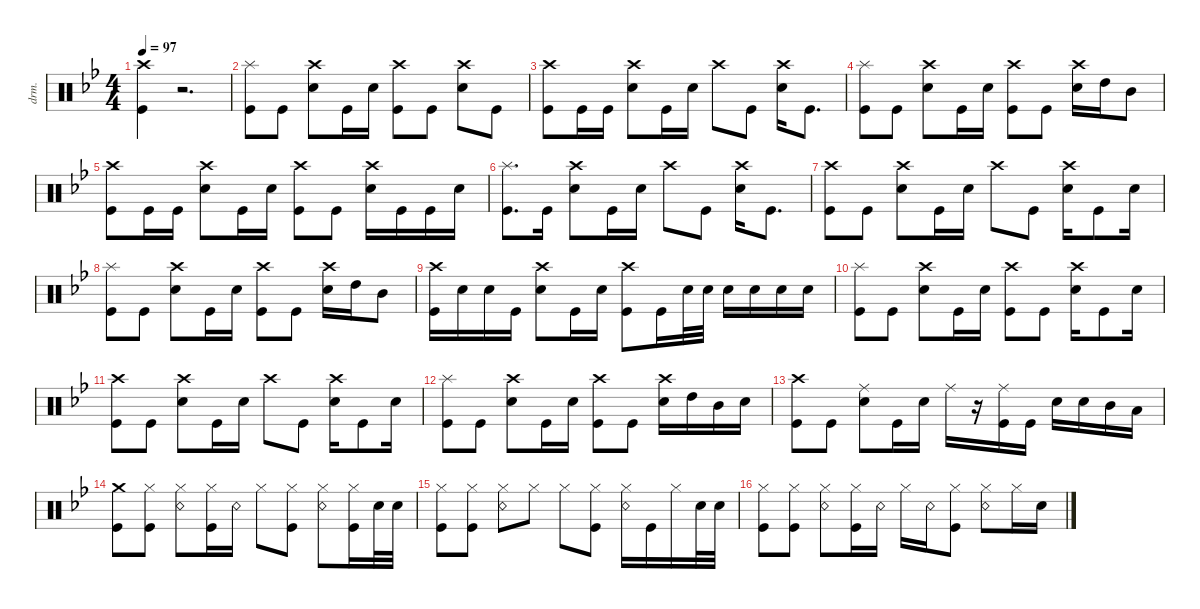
\defaultSystemsLayout 4
\hideDynamics
\bracketExtendMode nobrackets
\otherSystemsTrackNameOrientation horizontal
\track ("Drumkit" "drm.") {instrument percussion}
\staff {score}
\articulation defaults
\ts (4 4)
\tempo 97
\clef neutral
\ks bb
("Crash high (hit)" "Kick (hit)").4{dy mf} r.2{d} |
("Kick (hit)" "Splash (hit)").8{dy mp} "Kick (hit)".8 ("Snare (hit) 2" "Crash high (hit)").8 "Kick (hit)".16 "Snare (hit) 2".16 ("Kick (hit)" "Crash high (hit)").8 "Kick (hit)".8 ("Snare (hit) 2" "Crash high (hit)").8 "Kick (hit)".8 |
("Kick (hit)" "Crash high (hit)").8 "Kick (hit)".16 "Kick (hit)".16 ("Snare (hit) 2" "Crash high (hit)").8 "Kick (hit)".16 "Snare (hit) 2".16 "Crash high (hit)".8 "Kick (hit)".8 ("Snare (hit) 2" "Crash high (hit)").16 "Kick (hit)".8{d} |
("Kick (hit)" "Splash (hit)").8 "Kick (hit)".8 ("Snare (hit) 2" "Crash high (hit)").8 "Kick (hit)".16 "Snare (hit) 2".16 ("Kick (hit)" "Crash high (hit)").8 "Kick (hit)".8 ("Snare (hit) 2" "Crash high (hit)").16 "High Tom (hit)".16 "Mid Tom (hit)".8 |
("Kick (hit)" "Crash high (hit)").8 "Kick (hit)".16 "Kick (hit)".16 ("Snare (hit) 2" "Crash high (hit)").8 "Kick (hit)".16 "Snare (hit) 2".16 ("Kick (hit)" "Crash high (hit)").8 "Kick (hit)".8 ("Snare (hit) 2" "Crash high (hit)").16 "Kick (hit)".16 "Kick (hit)".16 "Snare (hit) 2".16 |
("Kick (hit)" "Splash (hit)").8{d} "Kick (hit)".16 ("Snare (hit) 2" "Crash high (hit)").8 "Kick (hit)".16 "Snare (hit) 2".16 "Crash high (hit)".8 "Kick (hit)".8 ("Snare (hit) 2" "Crash high (hit)").16 "Kick (hit)".8{d} |
("Kick (hit)" "Crash high (hit)").8 "Kick (hit)".8 ("Snare (hit) 2" "Crash high (hit)").8 "Kick (hit)".16 "Snare (hit) 2".16 "Crash high (hit)".8 "Kick (hit)".8 ("Snare (hit) 2" "Crash high (hit)").16 "Kick (hit)".8 "Snare (hit) 2".16 |
("Kick (hit)" "Splash (hit)").8 "Kick (hit)".8 ("Snare (hit) 2" "Crash high (hit)").8 "Kick (hit)".16 "Snare (hit) 2".16 ("Kick (hit)" "Crash high (hit)").8 "Kick (hit)".8 ("Snare (hit) 2" "Crash high (hit)").16 "High Tom (hit)".16 "Mid Tom (hit)".8 |
("Kick (hit)" "Crash high (hit)").16 "Snare (hit) 2".16 "Snare (hit) 2".16 "Kick (hit)".16 ("Snare (hit) 2" "Crash high (hit)").8 "Kick (hit)".16 "Snare (hit) 2".16 ("Kick (hit)" "Crash high (hit)").8 "Kick (hit)".16 "Snare (hit) 2".32 "Snare (hit) 2".32 "Snare (hit) 2".16 "Snare (hit) 2".16 "Snare (hit) 2".16 "Snare (hit) 2".16 |
("Kick (hit)" "Splash (hit)").8 "Kick (hit)".8 ("Snare (hit) 2" "Crash high (hit)").8 "Kick (hit)".16 "Snare (hit) 2".16 ("Kick (hit)" "Crash high (hit)").8 "Kick (hit)".8 ("Snare (hit) 2" "Crash high (hit)").16 "Kick (hit)".8 "Snare (hit) 2".16 |
("Kick (hit)" "Crash high (hit)").8 "Kick (hit)".8 ("Snare (hit) 2" "Crash high (hit)").8 "Kick (hit)".16 "Snare (hit) 2".16 "Crash high (hit)".8 "Kick (hit)".8 ("Snare (hit) 2" "Crash high (hit)").16 "Kick (hit)".8 "Snare (hit) 2".16 |
("Kick (hit)" "Splash (hit)").8 "Kick (hit)".8 ("Snare (hit) 2" "Crash high (hit)").8 "Kick (hit)".16 "Snare (hit) 2".16 ("Kick (hit)" "Crash high (hit)").8 "Kick (hit)".8 ("Snare (hit) 2" "Crash high (hit)").16 "High Tom (hit)".16 "Mid Tom (hit)".16 "Snare (hit) 2".16 |
("Kick (hit)" "Crash high (hit)").8 "Kick (hit)".8 ("Snare (hit) 2" "Ride (middle)").8 "Kick (hit)".16 "Snare (hit) 2".16 "Ride (middle)".16 r.16 ("Kick (hit)" "Ride (middle)").16 "Kick (hit)".16 "Snare (hit) 2".16 "Snare (hit) 2".16 "Mid Tom (hit)".16 "Low Tom (hit)".16 |
("Kick (hit)" "Crash medium (hit)").8{dy p} ("Kick (hit)" "Hi-Hat (closed)").8 ("Snare (rim shot)" "Hi-Hat (closed)").8 ("Hi-Hat (closed)" "Kick (hit)").16 "Snare (rim shot)".16 "Hi-Hat (closed)".8 ("Kick (hit)" "Hi-Hat (closed)").8 ("Snare (rim shot)" "Hi-Hat (closed)").8 ("Kick (hit)" "Hi-Hat (closed)").16 "Snare (hit) 2".32 "Snare (hit) 2".32 |
("Kick (hit)" "Hi-Hat (closed)").8 ("Kick (hit)" "Hi-Hat (closed)").8 ("Snare (rim shot)" "Hi-Hat (closed)").8 "Hi-Hat (closed)".8 "Hi-Hat (closed)".8 ("Kick (hit)" "Hi-Hat (closed)").8 ("Snare (rim shot)" "Hi-Hat (closed)").16 "Kick (hit)".16 "Hi-Hat (closed)".16 "Snare (hit) 2".32 "Snare (hit) 2".32 |
("Kick (hit)" "Hi-Hat (closed)").8 ("Hi-Hat (closed)" "Kick (hit)").8 ("Snare (rim shot)" "Hi-Hat (closed)").8 ("Hi-Hat (closed)" "Kick (hit)").16 "Snare (rim shot)".16 "Hi-Hat (closed)".16 "Snare (rim shot)".16 ("Kick (hit)" "Hi-Hat (closed)").8 ("Snare (rim shot)" "Hi-Hat (closed)").8 "Hi-Hat (closed)".16 "Snare (hit) 2".16
